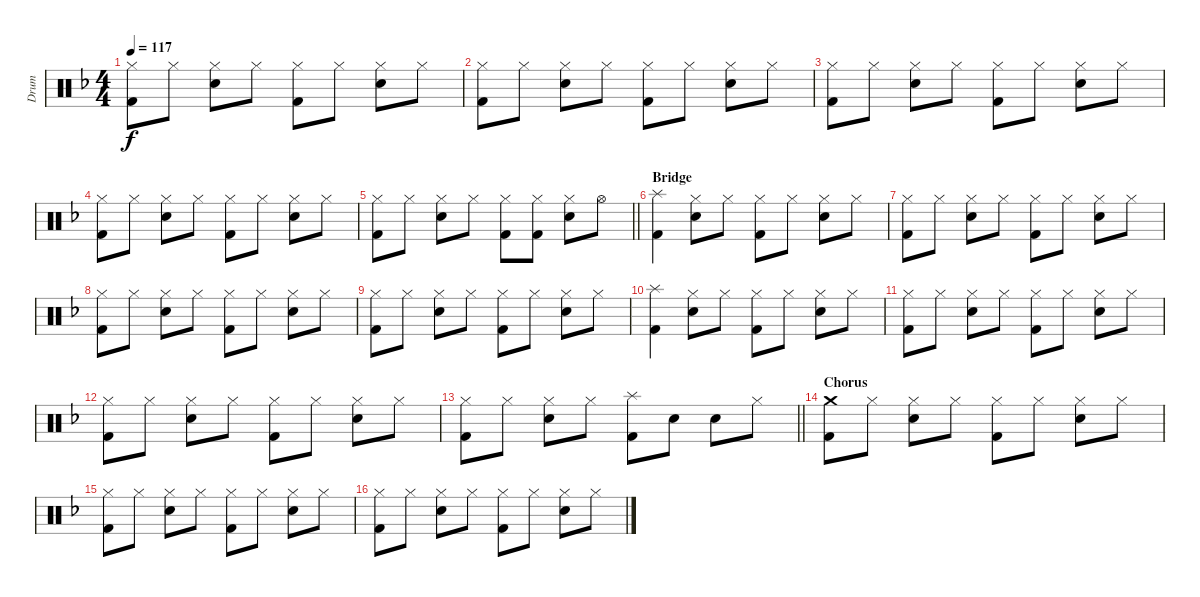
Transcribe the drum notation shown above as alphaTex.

\track ("Drum" "Drum") {instrument percussion}
\staff {score}
\articulation defaults
\ts (4 4)
\tempo 117
\clef neutral
\ks f
("Kick (hit) 2" "Hi-Hat (closed)").8{dy f} "Hi-Hat (closed)".8 ("Snare (hit) 2" "Hi-Hat (closed)").8 "Hi-Hat (closed)".8 ("Kick (hit) 2" "Hi-Hat (closed)").8 "Hi-Hat (closed)".8 ("Snare (hit) 2" "Hi-Hat (closed)").8 "Hi-Hat (closed)".8 |
("Kick (hit) 2" "Hi-Hat (closed)").8 "Hi-Hat (closed)".8 ("Snare (hit) 2" "Hi-Hat (closed)").8 "Hi-Hat (closed)".8 ("Kick (hit) 2" "Hi-Hat (closed)").8 "Hi-Hat (closed)".8 ("Snare (hit) 2" "Hi-Hat (closed)").8 "Hi-Hat (closed)".8 |
("Kick (hit) 2" "Hi-Hat (closed)").8 "Hi-Hat (closed)".8 ("Snare (hit) 2" "Hi-Hat (closed)").8 "Hi-Hat (closed)".8 ("Kick (hit) 2" "Hi-Hat (closed)").8 "Hi-Hat (closed)".8 ("Snare (hit) 2" "Hi-Hat (closed)").8 "Hi-Hat (closed)".8 |
("Kick (hit) 2" "Hi-Hat (closed)").8 "Hi-Hat (closed)".8 ("Snare (hit) 2" "Hi-Hat (closed)").8 "Hi-Hat (closed)".8 ("Kick (hit) 2" "Hi-Hat (closed)").8 "Hi-Hat (closed)".8 ("Snare (hit) 2" "Hi-Hat (closed)").8 "Hi-Hat (closed)".8 |
\barLineRight lightlight
("Kick (hit) 2" "Hi-Hat (closed)").8 "Hi-Hat (closed)".8 ("Snare (hit) 2" "Hi-Hat (closed)").8 "Hi-Hat (closed)".8 ("Kick (hit) 2" "Hi-Hat (closed)").8 ("Kick (hit) 2" "Hi-Hat (closed)").8 ("Snare (hit) 2" "Hi-Hat (closed)").8 "Hi-Hat (open)".8 |
\section ("" "Bridge")
("Kick (hit) 2" "Splash (hit)").4 ("Snare (hit) 2" "Hi-Hat (closed)").8 "Hi-Hat (closed)".8 ("Kick (hit) 2" "Hi-Hat (closed)").8 "Hi-Hat (closed)".8 ("Snare (hit) 2" "Hi-Hat (closed)").8 "Hi-Hat (closed)".8 |
("Kick (hit) 2" "Hi-Hat (closed)").8 "Hi-Hat (closed)".8 ("Snare (hit) 2" "Hi-Hat (closed)").8 "Hi-Hat (closed)".8 ("Kick (hit) 2" "Hi-Hat (closed)").8 "Hi-Hat (closed)".8 ("Snare (hit) 2" "Hi-Hat (closed)").8 "Hi-Hat (closed)".8 |
("Kick (hit) 2" "Hi-Hat (closed)").8 "Hi-Hat (closed)".8 ("Snare (hit) 2" "Hi-Hat (closed)").8 "Hi-Hat (closed)".8 ("Kick (hit) 2" "Hi-Hat (closed)").8 "Hi-Hat (closed)".8 ("Snare (hit) 2" "Hi-Hat (closed)").8 "Hi-Hat (closed)".8 |
("Kick (hit) 2" "Hi-Hat (closed)").8 "Hi-Hat (closed)".8 ("Snare (hit) 2" "Hi-Hat (closed)").8 "Hi-Hat (closed)".8 ("Kick (hit) 2" "Hi-Hat (closed)").8 "Hi-Hat (closed)".8 ("Snare (hit) 2" "Hi-Hat (closed)").8 "Hi-Hat (closed)".8 |
("Kick (hit) 2" "Splash (hit)").4 ("Snare (hit) 2" "Hi-Hat (closed)").8 "Hi-Hat (closed)".8 ("Kick (hit) 2" "Hi-Hat (closed)").8 "Hi-Hat (closed)".8 ("Snare (hit) 2" "Hi-Hat (closed)").8 "Hi-Hat (closed)".8 |
("Kick (hit) 2" "Hi-Hat (closed)").8 "Hi-Hat (closed)".8 ("Snare (hit) 2" "Hi-Hat (closed)").8 "Hi-Hat (closed)".8 ("Kick (hit) 2" "Hi-Hat (closed)").8 "Hi-Hat (closed)".8 ("Snare (hit) 2" "Hi-Hat (closed)").8 "Hi-Hat (closed)".8 |
("Kick (hit) 2" "Hi-Hat (closed)").8 "Hi-Hat (closed)".8 ("Snare (hit) 2" "Hi-Hat (closed)").8 "Hi-Hat (closed)".8 ("Kick (hit) 2" "Hi-Hat (closed)").8 "Hi-Hat (closed)".8 ("Snare (hit) 2" "Hi-Hat (closed)").8 "Hi-Hat (closed)".8 |
\barLineRight lightlight
("Kick (hit) 2" "Hi-Hat (closed)").8 "Hi-Hat (closed)".8 ("Snare (hit) 2" "Hi-Hat (closed)").8 "Hi-Hat (closed)".8 ("Kick (hit) 2" "Splash (hit)").8 "Snare (hit) 2".8 "Snare (hit) 2".8 "Hi-Hat (closed)".8 |
\section ("" "Chorus")
("Kick (hit) 2" "Crash medium (hit)").8 "Hi-Hat (closed)".8 ("Snare (hit) 2" "Hi-Hat (closed)").8 "Hi-Hat (closed)".8 ("Kick (hit) 2" "Hi-Hat (closed)").8 "Hi-Hat (closed)".8 ("Snare (hit) 2" "Hi-Hat (closed)").8 "Hi-Hat (closed)".8 |
("Kick (hit) 2" "Hi-Hat (closed)").8 "Hi-Hat (closed)".8 ("Snare (hit) 2" "Hi-Hat (closed)").8 "Hi-Hat (closed)".8 ("Kick (hit) 2" "Hi-Hat (closed)").8 "Hi-Hat (closed)".8 ("Snare (hit) 2" "Hi-Hat (closed)").8 "Hi-Hat (closed)".8 |
("Kick (hit) 2" "Hi-Hat (closed)").8 "Hi-Hat (closed)".8 ("Snare (hit) 2" "Hi-Hat (closed)").8 "Hi-Hat (closed)".8 ("Kick (hit) 2" "Hi-Hat (closed)").8 "Hi-Hat (closed)".8 ("Snare (hit) 2" "Hi-Hat (closed)").8 "Hi-Hat (closed)".8
